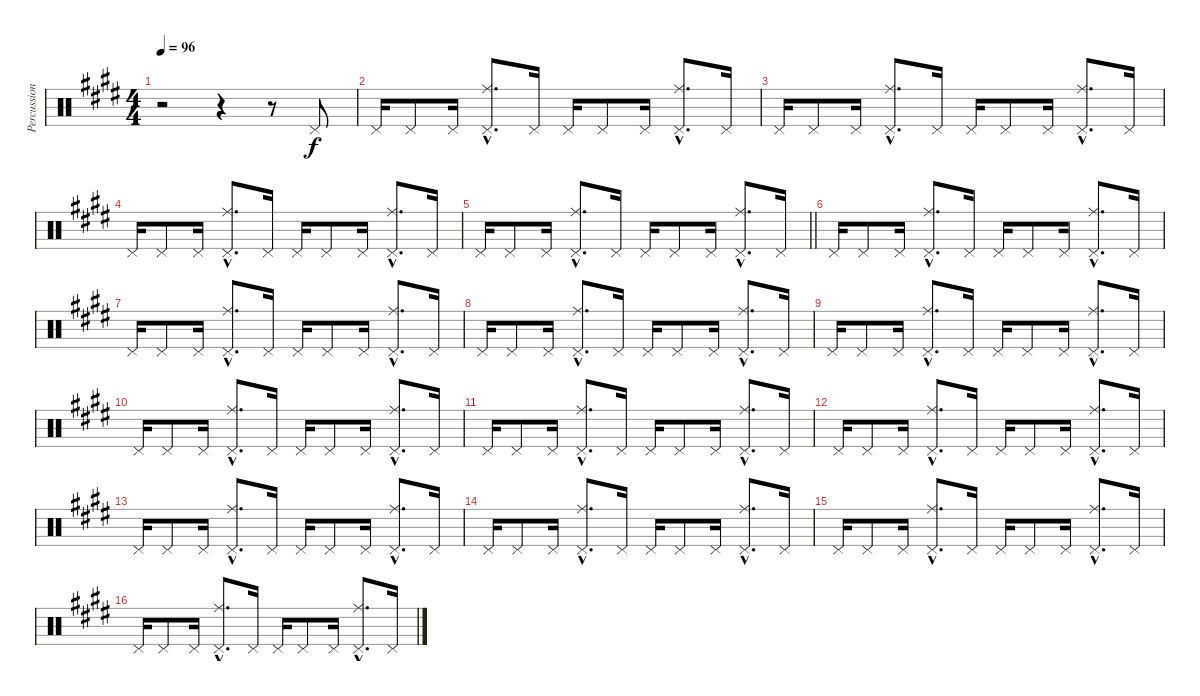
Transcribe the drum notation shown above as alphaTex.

\track ("Percussions" "Percussion") {instrument percussion}
\staff {score}
\articulation defaults
\ts (4 4)
\tempo 96
\clef neutral
\ks e
r.2{dy f} r.4 r.8 "Pedal Hi-Hat (hit)".8 |
"Pedal Hi-Hat (hit)".16 "Pedal Hi-Hat (hit)".8 "Pedal Hi-Hat (hit)".16 ("Pedal Hi-Hat (hit)"{hac} "Ride (middle)"{hac}).8{d} "Pedal Hi-Hat (hit)".16 "Pedal Hi-Hat (hit)".16 "Pedal Hi-Hat (hit)".8 "Pedal Hi-Hat (hit)".16 ("Pedal Hi-Hat (hit)"{hac} "Ride (middle)"{hac}).8{d} "Pedal Hi-Hat (hit)".16 |
"Pedal Hi-Hat (hit)".16 "Pedal Hi-Hat (hit)".8 "Pedal Hi-Hat (hit)".16 ("Pedal Hi-Hat (hit)"{hac} "Ride (middle)"{hac}).8{d} "Pedal Hi-Hat (hit)".16 "Pedal Hi-Hat (hit)".16 "Pedal Hi-Hat (hit)".8 "Pedal Hi-Hat (hit)".16 ("Pedal Hi-Hat (hit)"{hac} "Ride (middle)"{hac}).8{d} "Pedal Hi-Hat (hit)".16 |
"Pedal Hi-Hat (hit)".16 "Pedal Hi-Hat (hit)".8 "Pedal Hi-Hat (hit)".16 ("Pedal Hi-Hat (hit)"{hac} "Ride (middle)"{hac}).8{d} "Pedal Hi-Hat (hit)".16 "Pedal Hi-Hat (hit)".16 "Pedal Hi-Hat (hit)".8 "Pedal Hi-Hat (hit)".16 ("Pedal Hi-Hat (hit)"{hac} "Ride (middle)"{hac}).8{d} "Pedal Hi-Hat (hit)".16 |
\barLineRight lightlight "Pedal Hi-Hat (hit)".16 "Pedal Hi-Hat (hit)".8 "Pedal Hi-Hat (hit)".16
("Pedal Hi-Hat (hit)"{hac} "Ride (middle)"{hac}).8{d} "Pedal Hi-Hat (hit)".16 "Pedal Hi-Hat (hit)".16 "Pedal Hi-Hat (hit)".8 "Pedal Hi-Hat (hit)".16 ("Pedal Hi-Hat (hit)"{hac} "Ride (middle)"{hac}).8{d} "Pedal Hi-Hat (hit)".16 |
"Pedal Hi-Hat (hit)".16 "Pedal Hi-Hat (hit)".8 "Pedal Hi-Hat (hit)".16 ("Pedal Hi-Hat (hit)"{hac} "Ride (middle)"{hac}).8{d} "Pedal Hi-Hat (hit)".16 "Pedal Hi-Hat (hit)".16 "Pedal Hi-Hat (hit)".8 "Pedal Hi-Hat (hit)".16 ("Pedal Hi-Hat (hit)"{hac} "Ride (middle)"{hac}).8{d} "Pedal Hi-Hat (hit)".16 |
"Pedal Hi-Hat (hit)".16 "Pedal Hi-Hat (hit)".8 "Pedal Hi-Hat (hit)".16 ("Pedal Hi-Hat (hit)"{hac} "Ride (middle)"{hac}).8{d} "Pedal Hi-Hat (hit)".16 "Pedal Hi-Hat (hit)".16 "Pedal Hi-Hat (hit)".8 "Pedal Hi-Hat (hit)".16 ("Pedal Hi-Hat (hit)"{hac} "Ride (middle)"{hac}).8{d} "Pedal Hi-Hat (hit)".16 |
"Pedal Hi-Hat (hit)".16 "Pedal Hi-Hat (hit)".8 "Pedal Hi-Hat (hit)".16 ("Pedal Hi-Hat (hit)"{hac} "Ride (middle)"{hac}).8{d} "Pedal Hi-Hat (hit)".16 "Pedal Hi-Hat (hit)".16 "Pedal Hi-Hat (hit)".8 "Pedal Hi-Hat (hit)".16 ("Pedal Hi-Hat (hit)"{hac} "Ride (middle)"{hac}).8{d} "Pedal Hi-Hat (hit)".16 |
"Pedal Hi-Hat (hit)".16 "Pedal Hi-Hat (hit)".8 "Pedal Hi-Hat (hit)".16 ("Pedal Hi-Hat (hit)"{hac} "Ride (middle)"{hac}).8{d} "Pedal Hi-Hat (hit)".16 "Pedal Hi-Hat (hit)".16 "Pedal Hi-Hat (hit)".8 "Pedal Hi-Hat (hit)".16 ("Pedal Hi-Hat (hit)"{hac} "Ride (middle)"{hac}).8{d} "Pedal Hi-Hat (hit)".16 |
"Pedal Hi-Hat (hit)".16 "Pedal Hi-Hat (hit)".8 "Pedal Hi-Hat (hit)".16 ("Pedal Hi-Hat (hit)"{hac} "Ride (middle)"{hac}).8{d} "Pedal Hi-Hat (hit)".16 "Pedal Hi-Hat (hit)".16 "Pedal Hi-Hat (hit)".8 "Pedal Hi-Hat (hit)".16 ("Pedal Hi-Hat (hit)"{hac} "Ride (middle)"{hac}).8{d} "Pedal Hi-Hat (hit)".16 |
"Pedal Hi-Hat (hit)".16 "Pedal Hi-Hat (hit)".8 "Pedal Hi-Hat (hit)".16 ("Pedal Hi-Hat (hit)"{hac} "Ride (middle)"{hac}).8{d} "Pedal Hi-Hat (hit)".16 "Pedal Hi-Hat (hit)".16 "Pedal Hi-Hat (hit)".8 "Pedal Hi-Hat (hit)".16 ("Pedal Hi-Hat (hit)"{hac} "Ride (middle)"{hac}).8{d} "Pedal Hi-Hat (hit)".16 |
"Pedal Hi-Hat (hit)".16 "Pedal Hi-Hat (hit)".8 "Pedal Hi-Hat (hit)".16 ("Pedal Hi-Hat (hit)"{hac} "Ride (middle)"{hac}).8{d} "Pedal Hi-Hat (hit)".16 "Pedal Hi-Hat (hit)".16 "Pedal Hi-Hat (hit)".8 "Pedal Hi-Hat (hit)".16 ("Pedal Hi-Hat (hit)"{hac} "Ride (middle)"{hac}).8{d} "Pedal Hi-Hat (hit)".16 |
"Pedal Hi-Hat (hit)".16 "Pedal Hi-Hat (hit)".8 "Pedal Hi-Hat (hit)".16 ("Pedal Hi-Hat (hit)"{hac} "Ride (middle)"{hac}).8{d} "Pedal Hi-Hat (hit)".16 "Pedal Hi-Hat (hit)".16 "Pedal Hi-Hat (hit)".8 "Pedal Hi-Hat (hit)".16 ("Pedal Hi-Hat (hit)"{hac} "Ride (middle)"{hac}).8{d} "Pedal Hi-Hat (hit)".16 |
"Pedal Hi-Hat (hit)".16 "Pedal Hi-Hat (hit)".8 "Pedal Hi-Hat (hit)".16 ("Pedal Hi-Hat (hit)"{hac} "Ride (middle)"{hac}).8{d} "Pedal Hi-Hat (hit)".16 "Pedal Hi-Hat (hit)".16 "Pedal Hi-Hat (hit)".8 "Pedal Hi-Hat (hit)".16 ("Pedal Hi-Hat (hit)"{hac} "Ride (middle)"{hac}).8{d} "Pedal Hi-Hat (hit)".16 |
"Pedal Hi-Hat (hit)".16 "Pedal Hi-Hat (hit)".8 "Pedal Hi-Hat (hit)".16 ("Pedal Hi-Hat (hit)"{hac} "Ride (middle)"{hac}).8{d} "Pedal Hi-Hat (hit)".16 "Pedal Hi-Hat (hit)".16 "Pedal Hi-Hat (hit)".8 "Pedal Hi-Hat (hit)".16 ("Pedal Hi-Hat (hit)"{hac} "Ride (middle)"{hac}).8{d} "Pedal Hi-Hat (hit)".16 |
"Pedal Hi-Hat (hit)".16 "Pedal Hi-Hat (hit)".8 "Pedal Hi-Hat (hit)".16 ("Pedal Hi-Hat (hit)"{hac} "Ride (middle)"{hac}).8{d} "Pedal Hi-Hat (hit)".16 "Pedal Hi-Hat (hit)".16 "Pedal Hi-Hat (hit)".8 "Pedal Hi-Hat (hit)".16 ("Pedal Hi-Hat (hit)"{hac} "Ride (middle)"{hac}).8{d} "Pedal Hi-Hat (hit)".16
